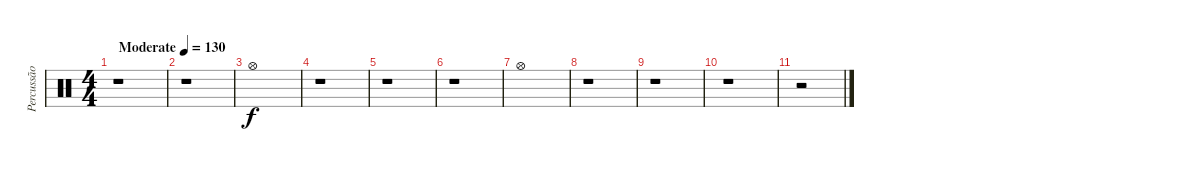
\track ("Percussão" "Percussão") {instrument percussion}
\staff {score}
\articulation defaults
\ts (4 4)
\tempo (130 "Moderate")
\clef neutral
\ks c
r.1{dy f} |
r.1 |
"Hi-Hat (open)".1 |
r.1 |
r.1 |
r.1 |
"Hi-Hat (open)".1 |
r.1 |
r.1 |
r.1 |
r.2
